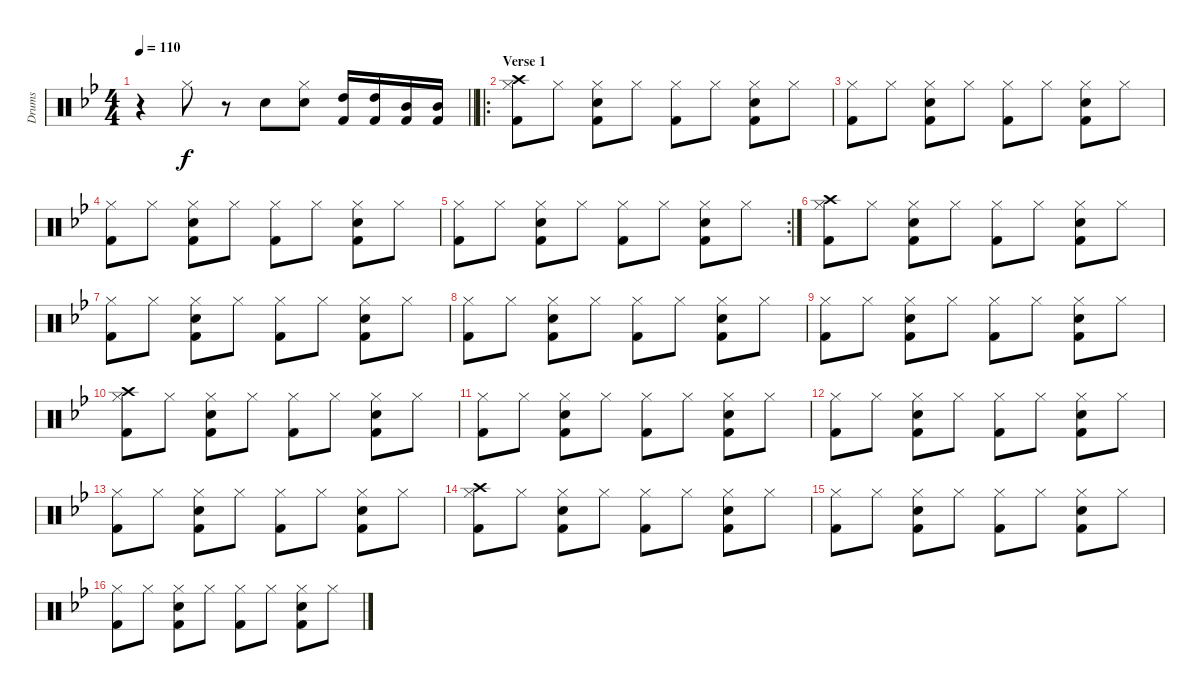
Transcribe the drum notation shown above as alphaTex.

\track ("Drums" "Drums") {instrument percussion}
\staff {score}
\articulation defaults
\ts (4 4)
\tempo 110
\clef neutral
\barLineRight lightlight
\ks bb
r.4{dy f} "Hi-Hat (closed)".8 r.8 "Electric Snare (hit)".8 ("Hi-Hat (closed)" "Electric Snare (hit)").8 ("High Tom (hit)" "Kick (hit) 2").16 ("High Tom (hit)" "Kick (hit) 2").16 ("Mid Tom (hit)" "Kick (hit) 2").16 ("Mid Tom (hit)" "Kick (hit) 2").16 |
\ro
\section ("" "Verse 1")
("Crash high (hit)" "Hi-Hat (closed)" "Kick (hit) 2").8 "Hi-Hat (closed)".8 ("Hi-Hat (closed)" "Electric Snare (hit)" "Kick (hit) 2").8 "Hi-Hat (closed)".8 ("Hi-Hat (closed)" "Kick (hit) 2").8 "Hi-Hat (closed)".8 ("Hi-Hat (closed)" "Electric Snare (hit)" "Kick (hit) 2").8 "Hi-Hat (closed)".8 |
("Hi-Hat (closed)" "Kick (hit) 2").8 "Hi-Hat (closed)".8 ("Hi-Hat (closed)" "Electric Snare (hit)" "Kick (hit) 2").8 "Hi-Hat (closed)".8 ("Hi-Hat (closed)" "Kick (hit) 2").8 "Hi-Hat (closed)".8 ("Hi-Hat (closed)" "Electric Snare (hit)" "Kick (hit) 2").8 "Hi-Hat (closed)".8 |
("Hi-Hat (closed)" "Kick (hit) 2").8 "Hi-Hat (closed)".8 ("Hi-Hat (closed)" "Electric Snare (hit)" "Kick (hit) 2").8 "Hi-Hat (closed)".8 ("Hi-Hat (closed)" "Kick (hit) 2").8 "Hi-Hat (closed)".8 ("Hi-Hat (closed)" "Electric Snare (hit)" "Kick (hit) 2").8 "Hi-Hat (closed)".8 |
\rc 2
("Hi-Hat (closed)" "Kick (hit) 2").8 "Hi-Hat (closed)".8 ("Hi-Hat (closed)" "Electric Snare (hit)" "Kick (hit) 2").8 "Hi-Hat (closed)".8 ("Hi-Hat (closed)" "Kick (hit) 2").8 "Hi-Hat (closed)".8 ("Hi-Hat (closed)" "Electric Snare (hit)" "Kick (hit) 2").8 "Hi-Hat (closed)".8 |
("Crash high (hit)" "Hi-Hat (closed)" "Kick (hit) 2").8 "Hi-Hat (closed)".8 ("Hi-Hat (closed)" "Electric Snare (hit)" "Kick (hit) 2").8 "Hi-Hat (closed)".8 ("Hi-Hat (closed)" "Kick (hit) 2").8 "Hi-Hat (closed)".8 ("Hi-Hat (closed)" "Electric Snare (hit)" "Kick (hit) 2").8 "Hi-Hat (closed)".8 |
("Hi-Hat (closed)" "Kick (hit) 2").8 "Hi-Hat (closed)".8 ("Hi-Hat (closed)" "Electric Snare (hit)" "Kick (hit) 2").8 "Hi-Hat (closed)".8 ("Hi-Hat (closed)" "Kick (hit) 2").8 "Hi-Hat (closed)".8 ("Hi-Hat (closed)" "Electric Snare (hit)" "Kick (hit) 2").8 "Hi-Hat (closed)".8 |
("Hi-Hat (closed)" "Kick (hit) 2").8 "Hi-Hat (closed)".8 ("Hi-Hat (closed)" "Electric Snare (hit)" "Kick (hit) 2").8 "Hi-Hat (closed)".8 ("Hi-Hat (closed)" "Kick (hit) 2").8 "Hi-Hat (closed)".8 ("Hi-Hat (closed)" "Electric Snare (hit)" "Kick (hit) 2").8 "Hi-Hat (closed)".8 |
("Hi-Hat (closed)" "Kick (hit) 2").8 "Hi-Hat (closed)".8 ("Hi-Hat (closed)" "Electric Snare (hit)" "Kick (hit) 2").8 "Hi-Hat (closed)".8 ("Hi-Hat (closed)" "Kick (hit) 2").8 "Hi-Hat (closed)".8 ("Hi-Hat (closed)" "Electric Snare (hit)" "Kick (hit) 2").8 "Hi-Hat (closed)".8 |
("Crash high (hit)" "Hi-Hat (closed)" "Kick (hit) 2").8 "Hi-Hat (closed)".8 ("Hi-Hat (closed)" "Electric Snare (hit)" "Kick (hit) 2").8 "Hi-Hat (closed)".8 ("Hi-Hat (closed)" "Kick (hit) 2").8 "Hi-Hat (closed)".8 ("Hi-Hat (closed)" "Electric Snare (hit)" "Kick (hit) 2").8 "Hi-Hat (closed)".8 |
("Hi-Hat (closed)" "Kick (hit) 2").8 "Hi-Hat (closed)".8 ("Hi-Hat (closed)" "Electric Snare (hit)" "Kick (hit) 2").8 "Hi-Hat (closed)".8 ("Hi-Hat (closed)" "Kick (hit) 2").8 "Hi-Hat (closed)".8 ("Hi-Hat (closed)" "Electric Snare (hit)" "Kick (hit) 2").8 "Hi-Hat (closed)".8 |
("Hi-Hat (closed)" "Kick (hit) 2").8 "Hi-Hat (closed)".8 ("Hi-Hat (closed)" "Electric Snare (hit)" "Kick (hit) 2").8 "Hi-Hat (closed)".8 ("Hi-Hat (closed)" "Kick (hit) 2").8 "Hi-Hat (closed)".8 ("Hi-Hat (closed)" "Electric Snare (hit)" "Kick (hit) 2").8 "Hi-Hat (closed)".8 |
("Hi-Hat (closed)" "Kick (hit) 2").8 "Hi-Hat (closed)".8 ("Hi-Hat (closed)" "Electric Snare (hit)" "Kick (hit) 2").8 "Hi-Hat (closed)".8 ("Hi-Hat (closed)" "Kick (hit) 2").8 "Hi-Hat (closed)".8 ("Hi-Hat (closed)" "Electric Snare (hit)" "Kick (hit) 2").8 "Hi-Hat (closed)".8 |
("Crash high (hit)" "Hi-Hat (closed)" "Kick (hit) 2").8 "Hi-Hat (closed)".8 ("Hi-Hat (closed)" "Electric Snare (hit)" "Kick (hit) 2").8 "Hi-Hat (closed)".8 ("Hi-Hat (closed)" "Kick (hit) 2").8 "Hi-Hat (closed)".8 ("Hi-Hat (closed)" "Electric Snare (hit)" "Kick (hit) 2").8 "Hi-Hat (closed)".8 |
("Hi-Hat (closed)" "Kick (hit) 2").8 "Hi-Hat (closed)".8 ("Hi-Hat (closed)" "Electric Snare (hit)" "Kick (hit) 2").8 "Hi-Hat (closed)".8 ("Hi-Hat (closed)" "Kick (hit) 2").8 "Hi-Hat (closed)".8 ("Hi-Hat (closed)" "Electric Snare (hit)" "Kick (hit) 2").8 "Hi-Hat (closed)".8 |
("Hi-Hat (closed)" "Kick (hit) 2").8 "Hi-Hat (closed)".8 ("Hi-Hat (closed)" "Electric Snare (hit)" "Kick (hit) 2").8 "Hi-Hat (closed)".8 ("Hi-Hat (closed)" "Kick (hit) 2").8 "Hi-Hat (closed)".8 ("Hi-Hat (closed)" "Electric Snare (hit)" "Kick (hit) 2").8 "Hi-Hat (closed)".8
